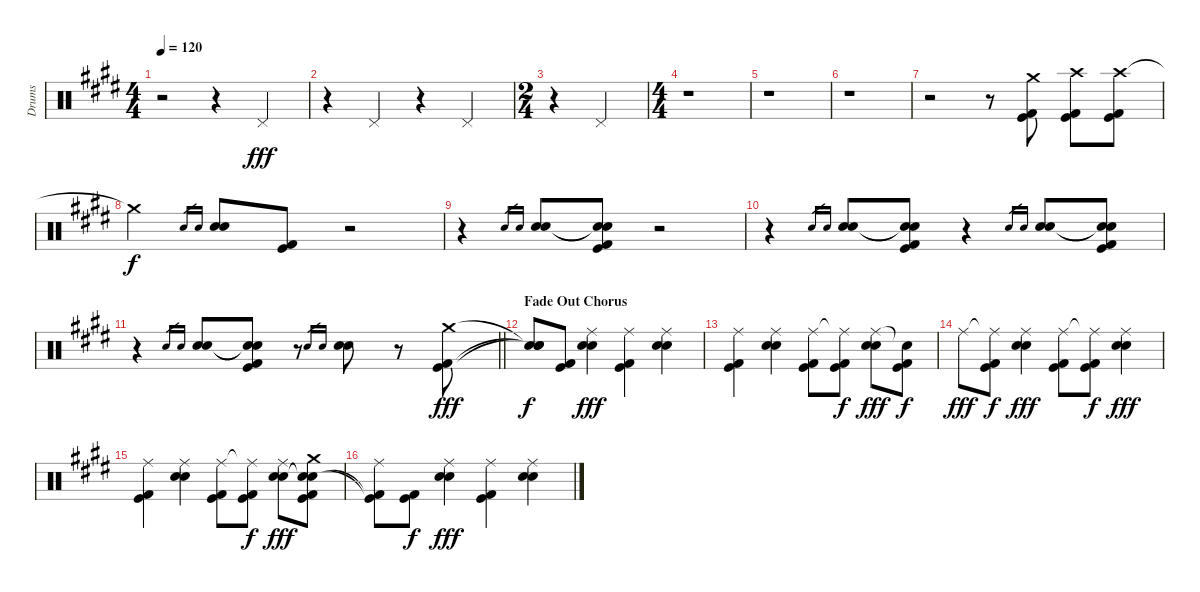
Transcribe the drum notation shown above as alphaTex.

\track ("Drums" "Drums") {instrument percussion}
\staff {score}
\articulation defaults
\ts (4 4)
\tempo 120
\clef neutral
\ks e
r.2{dy f} r.4 "Pedal Hi-Hat (hit)".4{dy fff} |
r.4 "Pedal Hi-Hat (hit)".4 r.4 "Pedal Hi-Hat (hit)".4 |
\ts (2 4)
r.4 "Pedal Hi-Hat (hit)".4 |
\ts (4 4)
r.1 |
r.1 |
r.1 |
r.2 r.8 ("Crash medium (hit)" "Kick (hit)" "Kick (hit) 2").8 ("Crash high (hit)" "Kick (hit)" "Kick (hit) 2").8 ("Crash high (hit)" "Kick (hit)" "Kick (hit) 2").8 |
"Crash medium (hit)"{t}.4{dy f} "Electric Snare (hit)".16{gr} "Snare (hit) 2".16{gr} ("Electric Snare (hit)" "Snare (hit) 2").8 ("Kick (hit)" "Kick (hit) 2").8 r.2 |
r.4 "Electric Snare (hit)".16{gr} "Snare (hit) 2".16{gr} ("Electric Snare (hit)" "Snare (hit) 2").8 ("Snare (hit)"{t} "Snare (hit)"{t} "Kick (hit)" "Kick (hit) 2").8 r.2 |
r.4 "Electric Snare (hit)".16{gr} "Snare (hit) 2".16{gr} ("Electric Snare (hit)" "Snare (hit) 2").8 ("Snare (hit)"{t} "Snare (hit)"{t} "Kick (hit)" "Kick (hit) 2").8 r.4 "Electric Snare (hit)".16{gr} "Snare (hit) 2".16{gr} ("Electric Snare (hit)" "Snare (hit) 2").8 ("Snare (hit)"{t} "Snare (hit)"{t} "Kick (hit)" "Kick (hit) 2").8 |
\barLineRight lightlight
r.4 "Electric Snare (hit)".16{gr} "Snare (hit) 2".16{gr} ("Electric Snare (hit)" "Snare (hit) 2").8 ("Snare (hit)"{t} "Snare (hit)"{t} "Kick (hit)" "Kick (hit) 2").8 r.8 "Electric Snare (hit)".16{gr} "Snare (hit) 2".16{gr} ("Electric Snare (hit)" "Snare (hit) 2").8 r.8 ("Crash medium (hit)" "Kick (hit)" "Kick (hit) 2").8{dy fff} |
\section ("" "Fade Out Chorus")
("Snare (hit)"{t} "Snare (hit)"{t} "Snare (hit)"{t}).8{dy f} ("Kick (hit)" "Kick (hit) 2").8 ("Ride (middle)" "Electric Snare (hit)" "Snare (hit) 2").4{dy fff} ("Ride (middle)" "Kick (hit)" "Kick (hit) 2").4 ("Ride (middle)" "Electric Snare (hit)" "Snare (hit) 2").4 |
("Ride (middle)" "Kick (hit)" "Kick (hit) 2").4 ("Ride (middle)" "Electric Snare (hit)" "Snare (hit) 2").4 ("Ride (middle)" "Kick (hit)" "Kick (hit) 2").8 ("Ride (middle)"{t} "Kick (hit)" "Kick (hit) 2").8{dy f} ("Ride (middle)" "Electric Snare (hit)" "Snare (hit) 2").8{dy fff} ("Snare (hit)"{t} "Kick (hit)" "Kick (hit) 2").8{dy f} |
"Ride (middle)".8{dy fff} ("Ride (middle)"{t} "Kick (hit)" "Kick (hit) 2").8{dy f} ("Ride (middle)" "Electric Snare (hit)" "Snare (hit) 2").4{dy fff} ("Ride (middle)" "Kick (hit)" "Kick (hit) 2").8 ("Ride (middle)"{t} "Kick (hit)" "Kick (hit) 2").8{dy f} ("Ride (middle)" "Electric Snare (hit)" "Snare (hit) 2").4{dy fff} |
("Ride (middle)" "Kick (hit)" "Kick (hit) 2").4 ("Ride (middle)" "Electric Snare (hit)" "Snare (hit) 2").4 ("Ride (middle)" "Kick (hit)" "Kick (hit) 2").8 ("Ride (middle)"{t} "Kick (hit)" "Kick (hit) 2").8{dy f} ("Ride (middle)" "Electric Snare (hit)" "Snare (hit) 2").8{dy fff} ("Crash medium (hit)" "Snare (hit)"{t} "Snare (hit)"{t} "Kick (hit)" "Kick (hit) 2").8 |
("Ride (middle)" "Kick (hit)"{t} "Kick (hit) 2"{t}).8 ("Kick (hit)" "Kick (hit) 2").8{dy f} ("Ride (middle)" "Electric Snare (hit)" "Snare (hit) 2").4{dy fff} ("Ride (middle)" "Kick (hit)" "Kick (hit) 2").4 ("Ride (middle)" "Electric Snare (hit)" "Snare (hit) 2").4
